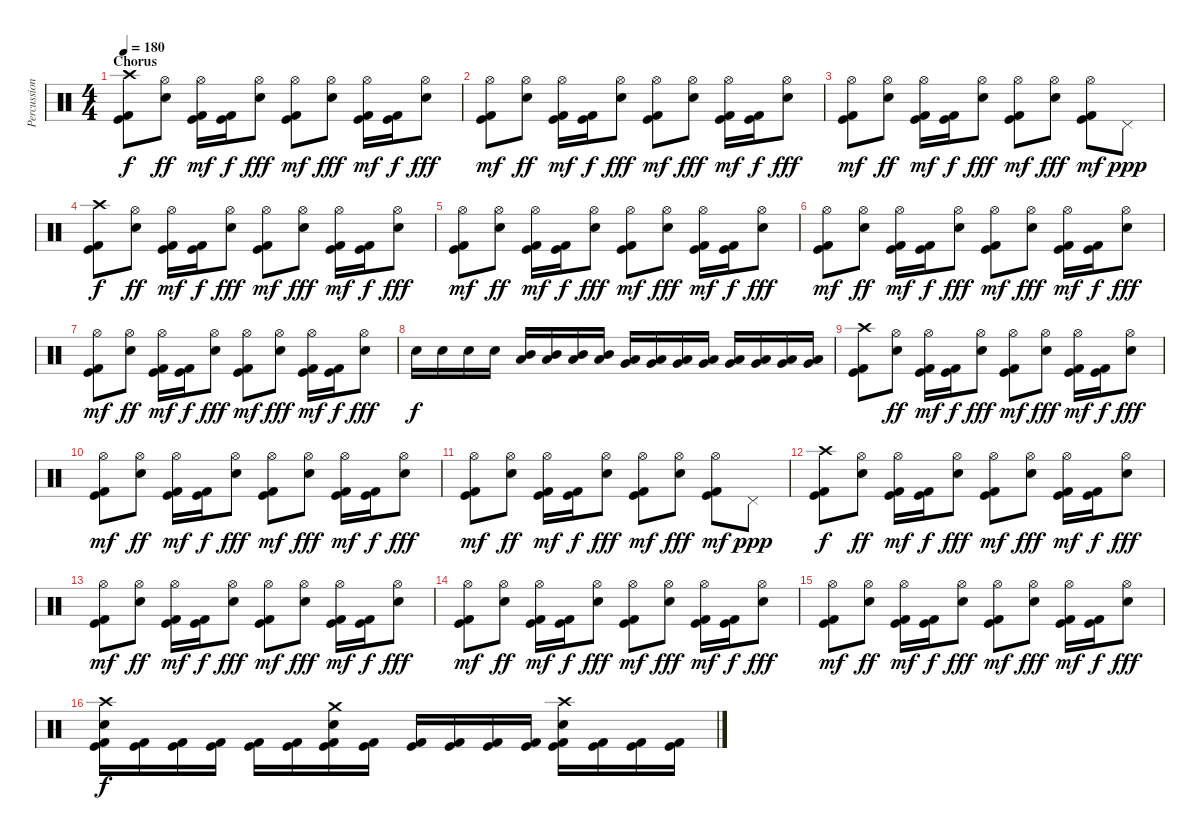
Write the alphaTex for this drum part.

\track ("Percussion" "Percussion") {instrument percussion}
\staff {score}
\articulation defaults
\ts (4 4)
\section ("" "Chorus")
\tempo 180
\clef neutral
\ks c
("Crash high (hit)" "Kick (hit)" "Kick (hit) 2").8{dy f} ("Hi-Hat (open)" "Snare (hit) 2").8{dy ff} ("Hi-Hat (open)" "Kick (hit)" "Kick (hit) 2").16{dy mf} ("Kick (hit)" "Kick (hit) 2").16{dy f} ("Hi-Hat (open)" "Snare (hit) 2").8{dy fff} ("Hi-Hat (open)" "Kick (hit)" "Kick (hit) 2").8{dy mf} ("Hi-Hat (open)" "Snare (hit) 2").8{dy fff} ("Hi-Hat (open)" "Kick (hit)" "Kick (hit) 2").16{dy mf} ("Kick (hit)" "Kick (hit) 2").16{dy f} ("Hi-Hat (open)" "Snare (hit) 2").8{dy fff} |
("Hi-Hat (open)" "Kick (hit)" "Kick (hit) 2").8{dy mf} ("Hi-Hat (open)" "Snare (hit) 2").8{dy ff} ("Hi-Hat (open)" "Kick (hit)" "Kick (hit) 2").16{dy mf} ("Kick (hit)" "Kick (hit) 2").16{dy f} ("Hi-Hat (open)" "Snare (hit) 2").8{dy fff} ("Hi-Hat (open)" "Kick (hit)" "Kick (hit) 2").8{dy mf} ("Hi-Hat (open)" "Snare (hit) 2").8{dy fff} ("Hi-Hat (open)" "Kick (hit)" "Kick (hit) 2").16{dy mf} ("Kick (hit)" "Kick (hit) 2").16{dy f} ("Hi-Hat (open)" "Snare (hit) 2").8{dy fff} |
("Hi-Hat (open)" "Kick (hit)" "Kick (hit) 2").8{dy mf} ("Hi-Hat (open)" "Snare (hit) 2").8{dy ff} ("Hi-Hat (open)" "Kick (hit)" "Kick (hit) 2").16{dy mf} ("Kick (hit)" "Kick (hit) 2").16{dy f} ("Hi-Hat (open)" "Snare (hit) 2").8{dy fff} ("Hi-Hat (open)" "Kick (hit)" "Kick (hit) 2").8{dy mf} ("Hi-Hat (open)" "Snare (hit) 2").8{dy fff} ("Hi-Hat (open)" "Kick (hit)" "Kick (hit) 2").8{dy mf} "Pedal Hi-Hat (hit)".8{dy ppp} |
("Crash high (hit)" "Kick (hit)" "Kick (hit) 2").8{dy f} ("Hi-Hat (open)" "Snare (hit) 2").8{dy ff} ("Hi-Hat (open)" "Kick (hit)" "Kick (hit) 2").16{dy mf} ("Kick (hit)" "Kick (hit) 2").16{dy f} ("Hi-Hat (open)" "Snare (hit) 2").8{dy fff} ("Hi-Hat (open)" "Kick (hit)" "Kick (hit) 2").8{dy mf} ("Hi-Hat (open)" "Snare (hit) 2").8{dy fff} ("Hi-Hat (open)" "Kick (hit)" "Kick (hit) 2").16{dy mf} ("Kick (hit)" "Kick (hit) 2").16{dy f} ("Hi-Hat (open)" "Snare (hit) 2").8{dy fff} |
("Hi-Hat (open)" "Kick (hit)" "Kick (hit) 2").8{dy mf} ("Hi-Hat (open)" "Snare (hit) 2").8{dy ff} ("Hi-Hat (open)" "Kick (hit)" "Kick (hit) 2").16{dy mf} ("Kick (hit)" "Kick (hit) 2").16{dy f} ("Hi-Hat (open)" "Snare (hit) 2").8{dy fff} ("Hi-Hat (open)" "Kick (hit)" "Kick (hit) 2").8{dy mf} ("Hi-Hat (open)" "Snare (hit) 2").8{dy fff} ("Hi-Hat (open)" "Kick (hit)" "Kick (hit) 2").16{dy mf} ("Kick (hit)" "Kick (hit) 2").16{dy f} ("Hi-Hat (open)" "Snare (hit) 2").8{dy fff} |
("Hi-Hat (open)" "Kick (hit)" "Kick (hit) 2").8{dy mf} ("Hi-Hat (open)" "Snare (hit) 2").8{dy ff} ("Hi-Hat (open)" "Kick (hit)" "Kick (hit) 2").16{dy mf} ("Kick (hit)" "Kick (hit) 2").16{dy f} ("Hi-Hat (open)" "Snare (hit) 2").8{dy fff} ("Hi-Hat (open)" "Kick (hit)" "Kick (hit) 2").8{dy mf} ("Hi-Hat (open)" "Snare (hit) 2").8{dy fff} ("Hi-Hat (open)" "Kick (hit)" "Kick (hit) 2").16{dy mf} ("Kick (hit)" "Kick (hit) 2").16{dy f} ("Hi-Hat (open)" "Snare (hit) 2").8{dy fff} |
("Hi-Hat (open)" "Kick (hit)" "Kick (hit) 2").8{dy mf} ("Hi-Hat (open)" "Snare (hit) 2").8{dy ff} ("Hi-Hat (open)" "Kick (hit)" "Kick (hit) 2").16{dy mf} ("Kick (hit)" "Kick (hit) 2").16{dy f} ("Hi-Hat (open)" "Snare (hit) 2").8{dy fff} ("Hi-Hat (open)" "Kick (hit)" "Kick (hit) 2").8{dy mf} ("Hi-Hat (open)" "Snare (hit) 2").8{dy fff} ("Hi-Hat (open)" "Kick (hit)" "Kick (hit) 2").16{dy mf} ("Kick (hit)" "Kick (hit) 2").16{dy f} ("Hi-Hat (open)" "Snare (hit) 2").8{dy fff} |
"Snare (hit) 2".16{dy f} "Snare (hit) 2".16 "Snare (hit) 2".16 "Snare (hit) 2".16 ("Low Tom (hit)" "Mid Tom (hit)").16 ("Low Tom (hit)" "Mid Tom (hit)").16 ("Low Tom (hit)" "Mid Tom (hit)").16 ("Low Tom (hit)" "Mid Tom (hit)").16 ("Very Low Tom (hit)" "Low Tom (hit)").16 ("Very Low Tom (hit)" "Low Tom (hit)").16 ("Very Low Tom (hit)" "Low Tom (hit)").16 ("Very Low Tom (hit)" "Low Tom (hit)").16 ("Low Floor Tom (hit)" "Very Low Tom (hit)").16 ("Low Floor Tom (hit)" "Very Low Tom (hit)").16 ("Low Floor Tom (hit)" "Very Low Tom (hit)").16 ("Low Floor Tom (hit)" "Very Low Tom (hit)").16 |
("Crash high (hit)" "Kick (hit)" "Kick (hit) 2").8 ("Hi-Hat (open)" "Snare (hit) 2").8{dy ff} ("Hi-Hat (open)" "Kick (hit)" "Kick (hit) 2").16{dy mf} ("Kick (hit)" "Kick (hit) 2").16{dy f} ("Hi-Hat (open)" "Snare (hit) 2").8{dy fff} ("Hi-Hat (open)" "Kick (hit)" "Kick (hit) 2").8{dy mf} ("Hi-Hat (open)" "Snare (hit) 2").8{dy fff} ("Hi-Hat (open)" "Kick (hit)" "Kick (hit) 2").16{dy mf} ("Kick (hit)" "Kick (hit) 2").16{dy f} ("Hi-Hat (open)" "Snare (hit) 2").8{dy fff} |
("Hi-Hat (open)" "Kick (hit)" "Kick (hit) 2").8{dy mf} ("Hi-Hat (open)" "Snare (hit) 2").8{dy ff} ("Hi-Hat (open)" "Kick (hit)" "Kick (hit) 2").16{dy mf} ("Kick (hit)" "Kick (hit) 2").16{dy f} ("Hi-Hat (open)" "Snare (hit) 2").8{dy fff} ("Hi-Hat (open)" "Kick (hit)" "Kick (hit) 2").8{dy mf} ("Hi-Hat (open)" "Snare (hit) 2").8{dy fff} ("Hi-Hat (open)" "Kick (hit)" "Kick (hit) 2").16{dy mf} ("Kick (hit)" "Kick (hit) 2").16{dy f} ("Hi-Hat (open)" "Snare (hit) 2").8{dy fff} |
("Hi-Hat (open)" "Kick (hit)" "Kick (hit) 2").8{dy mf} ("Hi-Hat (open)" "Snare (hit) 2").8{dy ff} ("Hi-Hat (open)" "Kick (hit)" "Kick (hit) 2").16{dy mf} ("Kick (hit)" "Kick (hit) 2").16{dy f} ("Hi-Hat (open)" "Snare (hit) 2").8{dy fff} ("Hi-Hat (open)" "Kick (hit)" "Kick (hit) 2").8{dy mf} ("Hi-Hat (open)" "Snare (hit) 2").8{dy fff} ("Hi-Hat (open)" "Kick (hit)" "Kick (hit) 2").8{dy mf} "Pedal Hi-Hat (hit)".8{dy ppp} |
("Crash high (hit)" "Kick (hit)" "Kick (hit) 2").8{dy f} ("Hi-Hat (open)" "Snare (hit) 2").8{dy ff} ("Hi-Hat (open)" "Kick (hit)" "Kick (hit) 2").16{dy mf} ("Kick (hit)" "Kick (hit) 2").16{dy f} ("Hi-Hat (open)" "Snare (hit) 2").8{dy fff} ("Hi-Hat (open)" "Kick (hit)" "Kick (hit) 2").8{dy mf} ("Hi-Hat (open)" "Snare (hit) 2").8{dy fff} ("Hi-Hat (open)" "Kick (hit)" "Kick (hit) 2").16{dy mf} ("Kick (hit)" "Kick (hit) 2").16{dy f} ("Hi-Hat (open)" "Snare (hit) 2").8{dy fff} |
("Hi-Hat (open)" "Kick (hit)" "Kick (hit) 2").8{dy mf} ("Hi-Hat (open)" "Snare (hit) 2").8{dy ff} ("Hi-Hat (open)" "Kick (hit)" "Kick (hit) 2").16{dy mf} ("Kick (hit)" "Kick (hit) 2").16{dy f} ("Hi-Hat (open)" "Snare (hit) 2").8{dy fff} ("Hi-Hat (open)" "Kick (hit)" "Kick (hit) 2").8{dy mf} ("Hi-Hat (open)" "Snare (hit) 2").8{dy fff} ("Hi-Hat (open)" "Kick (hit)" "Kick (hit) 2").16{dy mf} ("Kick (hit)" "Kick (hit) 2").16{dy f} ("Hi-Hat (open)" "Snare (hit) 2").8{dy fff} |
("Hi-Hat (open)" "Kick (hit)" "Kick (hit) 2").8{dy mf} ("Hi-Hat (open)" "Snare (hit) 2").8{dy ff} ("Hi-Hat (open)" "Kick (hit)" "Kick (hit) 2").16{dy mf} ("Kick (hit)" "Kick (hit) 2").16{dy f} ("Hi-Hat (open)" "Snare (hit) 2").8{dy fff} ("Hi-Hat (open)" "Kick (hit)" "Kick (hit) 2").8{dy mf} ("Hi-Hat (open)" "Snare (hit) 2").8{dy fff} ("Hi-Hat (open)" "Kick (hit)" "Kick (hit) 2").16{dy mf} ("Kick (hit)" "Kick (hit) 2").16{dy f} ("Hi-Hat (open)" "Snare (hit) 2").8{dy fff} |
("Hi-Hat (open)" "Kick (hit)" "Kick (hit) 2").8{dy mf} ("Hi-Hat (open)" "Snare (hit) 2").8{dy ff} ("Hi-Hat (open)" "Kick (hit)" "Kick (hit) 2").16{dy mf} ("Kick (hit)" "Kick (hit) 2").16{dy f} ("Hi-Hat (open)" "Snare (hit) 2").8{dy fff} ("Hi-Hat (open)" "Kick (hit)" "Kick (hit) 2").8{dy mf} ("Hi-Hat (open)" "Snare (hit) 2").8{dy fff} ("Hi-Hat (open)" "Kick (hit)" "Kick (hit) 2").16{dy mf} ("Kick (hit)" "Kick (hit) 2").16{dy f} ("Hi-Hat (open)" "Snare (hit) 2").8{dy fff} |
("Crash high (hit)" "Snare (hit) 2" "Kick (hit)" "Kick (hit) 2").16{dy f} ("Kick (hit)" "Kick (hit) 2").16 ("Kick (hit)" "Kick (hit) 2").16 ("Kick (hit)" "Kick (hit) 2").16 ("Kick (hit)" "Kick (hit) 2").16 ("Kick (hit)" "Kick (hit) 2").16 ("Crash medium (hit)" "Snare (hit) 2" "Kick (hit)" "Kick (hit) 2").16 ("Kick (hit)" "Kick (hit) 2").16 ("Kick (hit)" "Kick (hit) 2").16 ("Kick (hit)" "Kick (hit) 2").16 ("Kick (hit)" "Kick (hit) 2").16 ("Kick (hit)" "Kick (hit) 2").16 ("Crash high (hit)" "Snare (hit) 2" "Kick (hit)" "Kick (hit) 2").16 ("Kick (hit)" "Kick (hit) 2").16 ("Kick (hit)" "Kick (hit) 2").16 ("Kick (hit)" "Kick (hit) 2").16
